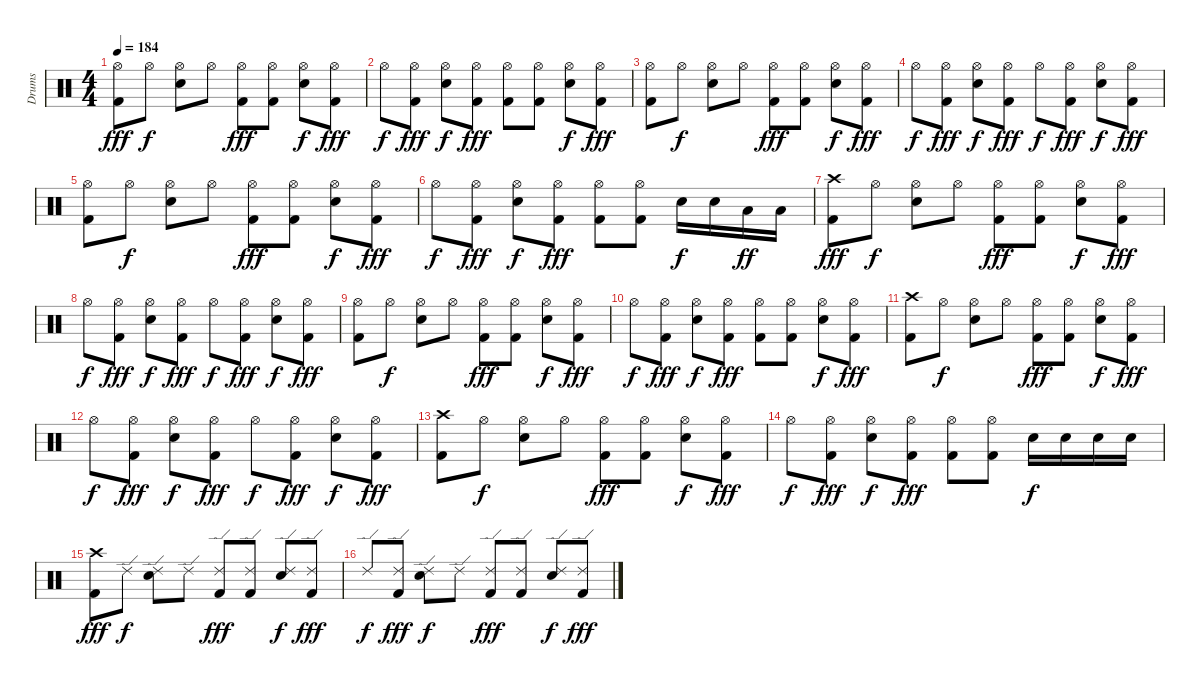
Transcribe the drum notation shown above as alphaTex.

\track ("Drums" "Drums") {instrument percussion}
\staff {score}
\articulation defaults
\ts (4 4)
\tempo 184
\clef neutral
\ks c
("Hi-Hat (open)" "Kick (hit) 2").8{dy fff} "Hi-Hat (open)".8{dy f} ("Hi-Hat (open)" "Snare (hit) 2").8 "Hi-Hat (open)".8 ("Hi-Hat (open)" "Kick (hit) 2").8{dy fff} ("Hi-Hat (open)" "Kick (hit) 2").8 ("Hi-Hat (open)" "Snare (hit) 2").8{dy f} ("Hi-Hat (open)" "Kick (hit) 2").8{dy fff} |
"Hi-Hat (open)".8{dy f} ("Hi-Hat (open)" "Kick (hit) 2").8{dy fff} ("Hi-Hat (open)" "Snare (hit) 2").8{dy f} ("Hi-Hat (open)" "Kick (hit) 2").8{dy fff} ("Hi-Hat (open)" "Kick (hit) 2").8 ("Hi-Hat (open)" "Kick (hit) 2").8 ("Hi-Hat (open)" "Snare (hit) 2").8{dy f} ("Hi-Hat (open)" "Kick (hit) 2").8{dy fff} |
("Hi-Hat (open)" "Kick (hit) 2").8 "Hi-Hat (open)".8{dy f} ("Hi-Hat (open)" "Snare (hit) 2").8 "Hi-Hat (open)".8 ("Hi-Hat (open)" "Kick (hit) 2").8{dy fff} ("Hi-Hat (open)" "Kick (hit) 2").8 ("Hi-Hat (open)" "Snare (hit) 2").8{dy f} ("Hi-Hat (open)" "Kick (hit) 2").8{dy fff} |
"Hi-Hat (open)".8{dy f} ("Hi-Hat (open)" "Kick (hit) 2").8{dy fff} ("Hi-Hat (open)" "Snare (hit) 2").8{dy f} ("Hi-Hat (open)" "Kick (hit) 2").8{dy fff} "Hi-Hat (open)".8{dy f} ("Hi-Hat (open)" "Kick (hit) 2").8{dy fff} ("Hi-Hat (open)" "Snare (hit) 2").8{dy f} ("Hi-Hat (open)" "Kick (hit) 2").8{dy fff} |
("Hi-Hat (open)" "Kick (hit) 2").8 "Hi-Hat (open)".8{dy f} ("Hi-Hat (open)" "Snare (hit) 2").8 "Hi-Hat (open)".8 ("Hi-Hat (open)" "Kick (hit) 2").8{dy fff} ("Hi-Hat (open)" "Kick (hit) 2").8 ("Hi-Hat (open)" "Snare (hit) 2").8{dy f} ("Hi-Hat (open)" "Kick (hit) 2").8{dy fff} |
"Hi-Hat (open)".8{dy f} ("Hi-Hat (open)" "Kick (hit) 2").8{dy fff} ("Hi-Hat (open)" "Snare (hit) 2").8{dy f} ("Hi-Hat (open)" "Kick (hit) 2").8{dy fff} ("Hi-Hat (open)" "Kick (hit) 2").8 ("Hi-Hat (open)" "Kick (hit) 2").8 "Snare (hit) 2".16{dy f} "Snare (hit) 2".16 "Low Tom (hit)".16{dy ff} "Low Tom (hit)".16 |
("Crash high (hit)" "Kick (hit) 2").8{dy fff} "Hi-Hat (open)".8{dy f} ("Hi-Hat (open)" "Snare (hit) 2").8 "Hi-Hat (open)".8 ("Hi-Hat (open)" "Kick (hit) 2").8{dy fff} ("Hi-Hat (open)" "Kick (hit) 2").8 ("Hi-Hat (open)" "Snare (hit) 2").8{dy f} ("Hi-Hat (open)" "Kick (hit) 2").8{dy fff} |
"Hi-Hat (open)".8{dy f} ("Hi-Hat (open)" "Kick (hit) 2").8{dy fff} ("Hi-Hat (open)" "Snare (hit) 2").8{dy f} ("Hi-Hat (open)" "Kick (hit) 2").8{dy fff} "Hi-Hat (open)".8{dy f} ("Hi-Hat (open)" "Kick (hit) 2").8{dy fff} ("Hi-Hat (open)" "Snare (hit) 2").8{dy f} ("Hi-Hat (open)" "Kick (hit) 2").8{dy fff} |
("Hi-Hat (open)" "Kick (hit) 2").8 "Hi-Hat (open)".8{dy f} ("Hi-Hat (open)" "Snare (hit) 2").8 "Hi-Hat (open)".8 ("Hi-Hat (open)" "Kick (hit) 2").8{dy fff} ("Hi-Hat (open)" "Kick (hit) 2").8 ("Hi-Hat (open)" "Snare (hit) 2").8{dy f} ("Hi-Hat (open)" "Kick (hit) 2").8{dy fff} |
"Hi-Hat (open)".8{dy f} ("Hi-Hat (open)" "Kick (hit) 2").8{dy fff} ("Hi-Hat (open)" "Snare (hit) 2").8{dy f} ("Hi-Hat (open)" "Kick (hit) 2").8{dy fff} ("Hi-Hat (open)" "Kick (hit) 2").8 ("Hi-Hat (open)" "Kick (hit) 2").8 ("Hi-Hat (open)" "Snare (hit) 2").8{dy f} ("Hi-Hat (open)" "Kick (hit) 2").8{dy fff} |
("Crash high (hit)" "Kick (hit) 2").8 "Hi-Hat (open)".8{dy f} ("Hi-Hat (open)" "Snare (hit) 2").8 "Hi-Hat (open)".8 ("Hi-Hat (open)" "Kick (hit) 2").8{dy fff} ("Hi-Hat (open)" "Kick (hit) 2").8 ("Hi-Hat (open)" "Snare (hit) 2").8{dy f} ("Hi-Hat (open)" "Kick (hit) 2").8{dy fff} |
"Hi-Hat (open)".8{dy f} ("Hi-Hat (open)" "Kick (hit) 2").8{dy fff} ("Hi-Hat (open)" "Snare (hit) 2").8{dy f} ("Hi-Hat (open)" "Kick (hit) 2").8{dy fff} "Hi-Hat (open)".8{dy f} ("Hi-Hat (open)" "Kick (hit) 2").8{dy fff} ("Hi-Hat (open)" "Snare (hit) 2").8{dy f} ("Hi-Hat (open)" "Kick (hit) 2").8{dy fff} |
("Crash high (hit)" "Kick (hit) 2").8 "Hi-Hat (open)".8{dy f} ("Hi-Hat (open)" "Snare (hit) 2").8 "Hi-Hat (open)".8 ("Hi-Hat (open)" "Kick (hit) 2").8{dy fff} ("Hi-Hat (open)" "Kick (hit) 2").8 ("Hi-Hat (open)" "Snare (hit) 2").8{dy f} ("Hi-Hat (open)" "Kick (hit) 2").8{dy fff} |
"Hi-Hat (open)".8{dy f} ("Hi-Hat (open)" "Kick (hit) 2").8{dy fff} ("Hi-Hat (open)" "Snare (hit) 2").8{dy f} ("Hi-Hat (open)" "Kick (hit) 2").8{dy fff} ("Hi-Hat (open)" "Kick (hit) 2").8 ("Hi-Hat (open)" "Kick (hit) 2").8 "Snare (hit) 2".16{dy f} "Snare (hit) 2".16 "Snare (hit) 2".16 "Snare (hit) 2".16 |
("Crash high (hit)" "Kick (hit) 2").8{dy fff} "Ride (edge) 2".8{dy f} ("Ride (edge) 2" "Snare (hit) 2").8 "Ride (edge) 2".8 ("Ride (edge) 2" "Kick (hit) 2").8{dy fff} ("Ride (edge) 2" "Kick (hit) 2").8 ("Ride (edge) 2" "Snare (hit) 2").8{dy f} ("Ride (edge) 2" "Kick (hit) 2").8{dy fff} |
"Ride (edge) 2".8{dy f} ("Ride (edge) 2" "Kick (hit) 2").8{dy fff} ("Ride (edge) 2" "Snare (hit) 2").8{dy f} "Ride (edge) 2".8 ("Ride (edge) 2" "Kick (hit) 2").8{dy fff} ("Ride (edge) 2" "Kick (hit) 2").8 ("Ride (edge) 2" "Snare (hit) 2").8{dy f} ("Ride (edge) 2" "Kick (hit) 2").8{dy fff}
